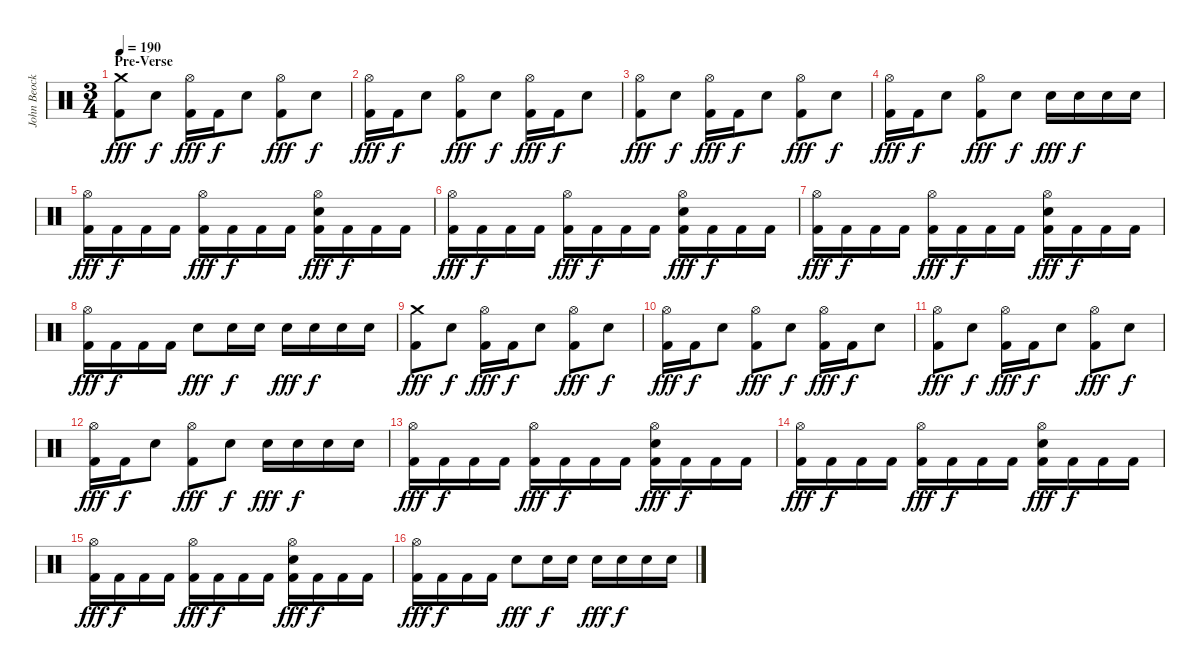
\track ("John Beocklin (Drums)" "John Beock") {instrument percussion}
\staff {score}
\articulation defaults
\ts (3 4)
\section ("" "Pre-Verse")
\tempo 190
\clef neutral
\ks c
("Crash medium (hit)" "Kick (hit) 2").8{dy fff} "Snare (hit) 2".8{dy f} ("Hi-Hat (open)" "Kick (hit) 2").16{dy fff} "Kick (hit) 2".16{dy f} "Snare (hit) 2".8 ("Hi-Hat (open)" "Kick (hit) 2").8{dy fff} "Snare (hit) 2".8{dy f} |
("Hi-Hat (open)" "Kick (hit) 2").16{dy fff} "Kick (hit) 2".16{dy f} "Snare (hit) 2".8 ("Hi-Hat (open)" "Kick (hit) 2").8{dy fff} "Snare (hit) 2".8{dy f} ("Hi-Hat (open)" "Kick (hit) 2").16{dy fff} "Kick (hit) 2".16{dy f} "Snare (hit) 2".8 |
("Hi-Hat (open)" "Kick (hit) 2").8{dy fff} "Snare (hit) 2".8{dy f} ("Hi-Hat (open)" "Kick (hit) 2").16{dy fff} "Kick (hit) 2".16{dy f} "Snare (hit) 2".8 ("Hi-Hat (open)" "Kick (hit) 2").8{dy fff} "Snare (hit) 2".8{dy f} |
("Hi-Hat (open)" "Kick (hit) 2").16{dy fff} "Kick (hit) 2".16{dy f} "Snare (hit) 2".8 ("Hi-Hat (open)" "Kick (hit) 2").8{dy fff} "Snare (hit) 2".8{dy f} "Snare (hit) 2".16{dy fff} "Snare (hit) 2".16{dy f} "Snare (hit) 2".16 "Snare (hit) 2".16 |
("Hi-Hat (open)" "Kick (hit) 2").16{dy fff} "Kick (hit) 2".16{dy f} "Kick (hit) 2".16 "Kick (hit) 2".16 ("Hi-Hat (open)" "Kick (hit) 2").16{dy fff} "Kick (hit) 2".16{dy f} "Kick (hit) 2".16 "Kick (hit) 2".16 ("Hi-Hat (open)" "Snare (hit) 2" "Kick (hit) 2").16{dy fff} "Kick (hit) 2".16{dy f} "Kick (hit) 2".16 "Kick (hit) 2".16 |
("Hi-Hat (open)" "Kick (hit) 2").16{dy fff} "Kick (hit) 2".16{dy f} "Kick (hit) 2".16 "Kick (hit) 2".16 ("Hi-Hat (open)" "Kick (hit) 2").16{dy fff} "Kick (hit) 2".16{dy f} "Kick (hit) 2".16 "Kick (hit) 2".16 ("Hi-Hat (open)" "Snare (hit) 2" "Kick (hit) 2").16{dy fff} "Kick (hit) 2".16{dy f} "Kick (hit) 2".16 "Kick (hit) 2".16 |
("Hi-Hat (open)" "Kick (hit) 2").16{dy fff} "Kick (hit) 2".16{dy f} "Kick (hit) 2".16 "Kick (hit) 2".16 ("Hi-Hat (open)" "Kick (hit) 2").16{dy fff} "Kick (hit) 2".16{dy f} "Kick (hit) 2".16 "Kick (hit) 2".16 ("Hi-Hat (open)" "Snare (hit) 2" "Kick (hit) 2").16{dy fff} "Kick (hit) 2".16{dy f} "Kick (hit) 2".16 "Kick (hit) 2".16 |
("Hi-Hat (open)" "Kick (hit) 2").16{dy fff} "Kick (hit) 2".16{dy f} "Kick (hit) 2".16 "Kick (hit) 2".16 "Snare (hit) 2".8{dy fff} "Snare (hit) 2".16{dy f} "Snare (hit) 2".16 "Snare (hit) 2".16{dy fff} "Snare (hit) 2".16{dy f} "Snare (hit) 2".16 "Snare (hit) 2".16 |
("Crash medium (hit)" "Kick (hit) 2").8{dy fff} "Snare (hit) 2".8{dy f} ("Hi-Hat (open)" "Kick (hit) 2").16{dy fff} "Kick (hit) 2".16{dy f} "Snare (hit) 2".8 ("Hi-Hat (open)" "Kick (hit) 2").8{dy fff} "Snare (hit) 2".8{dy f} |
("Hi-Hat (open)" "Kick (hit) 2").16{dy fff} "Kick (hit) 2".16{dy f} "Snare (hit) 2".8 ("Hi-Hat (open)" "Kick (hit) 2").8{dy fff} "Snare (hit) 2".8{dy f} ("Hi-Hat (open)" "Kick (hit) 2").16{dy fff} "Kick (hit) 2".16{dy f} "Snare (hit) 2".8 |
("Hi-Hat (open)" "Kick (hit) 2").8{dy fff} "Snare (hit) 2".8{dy f} ("Hi-Hat (open)" "Kick (hit) 2").16{dy fff} "Kick (hit) 2".16{dy f} "Snare (hit) 2".8 ("Hi-Hat (open)" "Kick (hit) 2").8{dy fff} "Snare (hit) 2".8{dy f} |
("Hi-Hat (open)" "Kick (hit) 2").16{dy fff} "Kick (hit) 2".16{dy f} "Snare (hit) 2".8 ("Hi-Hat (open)" "Kick (hit) 2").8{dy fff} "Snare (hit) 2".8{dy f} "Snare (hit) 2".16{dy fff} "Snare (hit) 2".16{dy f} "Snare (hit) 2".16 "Snare (hit) 2".16 |
("Hi-Hat (open)" "Kick (hit) 2").16{dy fff} "Kick (hit) 2".16{dy f} "Kick (hit) 2".16 "Kick (hit) 2".16 ("Hi-Hat (open)" "Kick (hit) 2").16{dy fff} "Kick (hit) 2".16{dy f} "Kick (hit) 2".16 "Kick (hit) 2".16 ("Hi-Hat (open)" "Snare (hit) 2" "Kick (hit) 2").16{dy fff} "Kick (hit) 2".16{dy f} "Kick (hit) 2".16 "Kick (hit) 2".16 |
("Hi-Hat (open)" "Kick (hit) 2").16{dy fff} "Kick (hit) 2".16{dy f} "Kick (hit) 2".16 "Kick (hit) 2".16 ("Hi-Hat (open)" "Kick (hit) 2").16{dy fff} "Kick (hit) 2".16{dy f} "Kick (hit) 2".16 "Kick (hit) 2".16 ("Hi-Hat (open)" "Snare (hit) 2" "Kick (hit) 2").16{dy fff} "Kick (hit) 2".16{dy f} "Kick (hit) 2".16 "Kick (hit) 2".16 |
("Hi-Hat (open)" "Kick (hit) 2").16{dy fff} "Kick (hit) 2".16{dy f} "Kick (hit) 2".16 "Kick (hit) 2".16 ("Hi-Hat (open)" "Kick (hit) 2").16{dy fff} "Kick (hit) 2".16{dy f} "Kick (hit) 2".16 "Kick (hit) 2".16 ("Hi-Hat (open)" "Snare (hit) 2" "Kick (hit) 2").16{dy fff} "Kick (hit) 2".16{dy f} "Kick (hit) 2".16 "Kick (hit) 2".16 |
("Hi-Hat (open)" "Kick (hit) 2").16{dy fff} "Kick (hit) 2".16{dy f} "Kick (hit) 2".16 "Kick (hit) 2".16 "Snare (hit) 2".8{dy fff} "Snare (hit) 2".16{dy f} "Snare (hit) 2".16 "Snare (hit) 2".16{dy fff} "Snare (hit) 2".16{dy f} "Snare (hit) 2".16 "Snare (hit) 2".16
